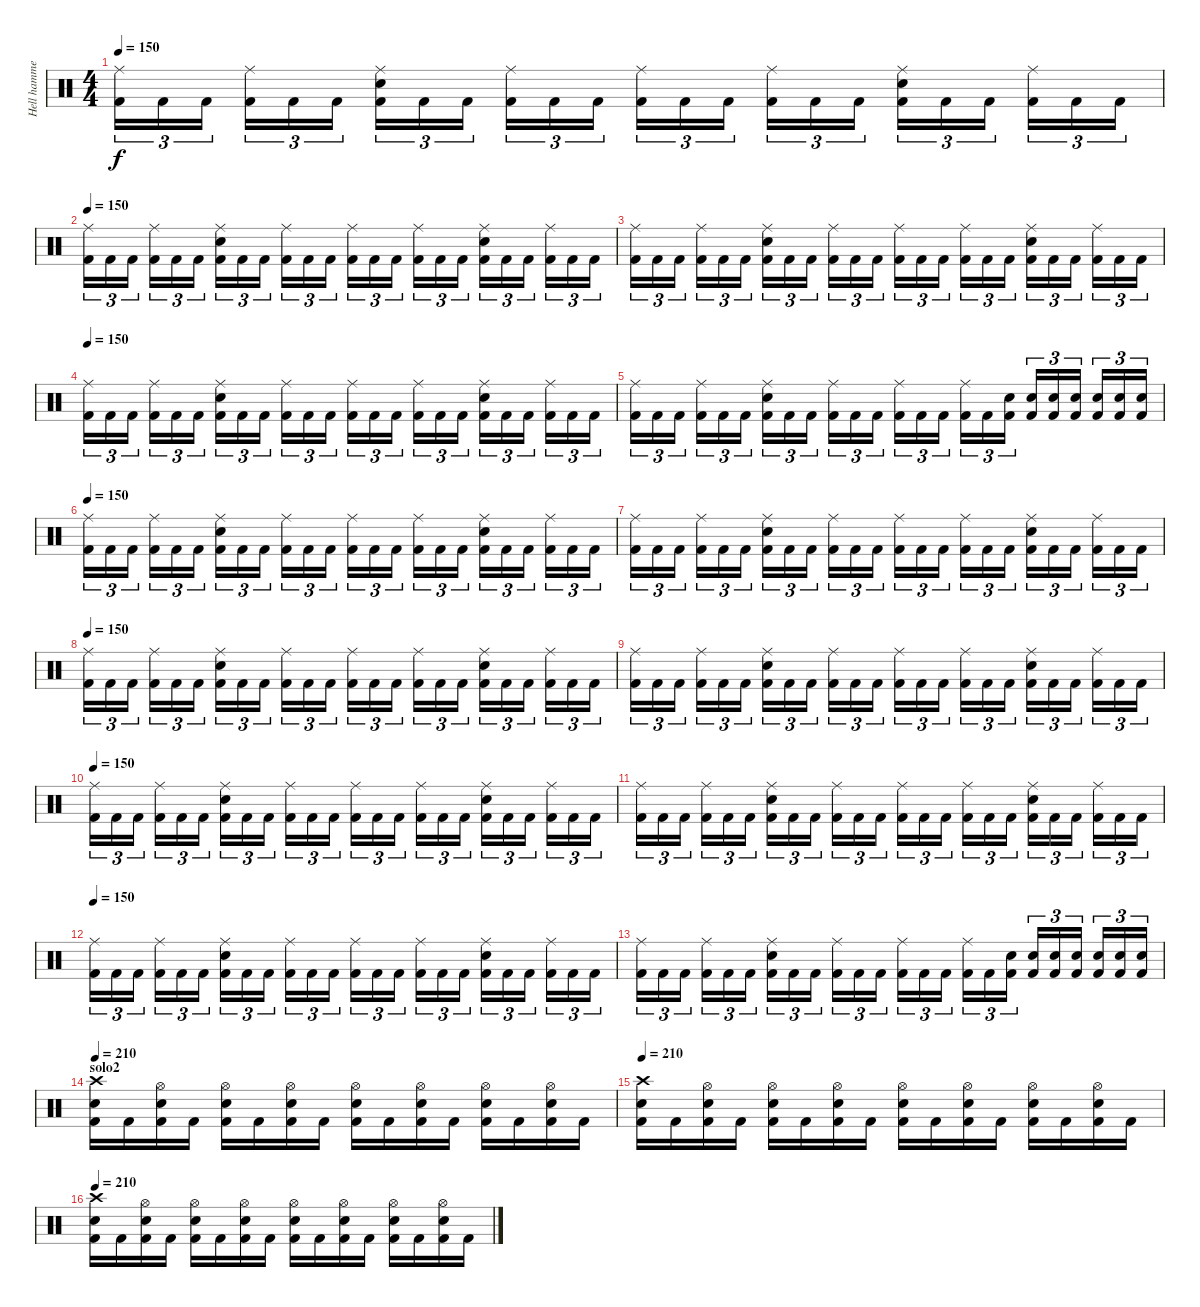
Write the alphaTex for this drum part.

\track ("Hell hammers" "Hell hamme") {instrument percussion}
\staff {score}
\articulation defaults
\ts (4 4)
\tempo 150
\clef neutral
\ks c
("Ride (middle)" "Kick (hit) 2").16{tu (3 2) dy f} "Kick (hit) 2".16{tu (3 2)} "Kick (hit) 2".16{tu (3 2)} ("Ride (middle)" "Kick (hit) 2").16{tu (3 2)} "Kick (hit) 2".16{tu (3 2)} "Kick (hit) 2".16{tu (3 2)} ("Ride (middle)" "Snare (hit) 2" "Kick (hit) 2").16{tu (3 2)} "Kick (hit) 2".16{tu (3 2)} "Kick (hit) 2".16{tu (3 2)} ("Ride (middle)" "Kick (hit) 2").16{tu (3 2)} "Kick (hit) 2".16{tu (3 2)} "Kick (hit) 2".16{tu (3 2)} ("Ride (middle)" "Kick (hit) 2").16{tu (3 2)} "Kick (hit) 2".16{tu (3 2)} "Kick (hit) 2".16{tu (3 2)} ("Ride (middle)" "Kick (hit) 2").16{tu (3 2)} "Kick (hit) 2".16{tu (3 2)} "Kick (hit) 2".16{tu (3 2)} ("Ride (middle)" "Snare (hit) 2" "Kick (hit) 2").16{tu (3 2)} "Kick (hit) 2".16{tu (3 2)} "Kick (hit) 2".16{tu (3 2)} ("Ride (middle)" "Kick (hit) 2").16{tu (3 2)} "Kick (hit) 2".16{tu (3 2)} "Kick (hit) 2".16{tu (3 2)} |
\tempo 150
("Ride (middle)" "Kick (hit) 2").16{tu (3 2)} "Kick (hit) 2".16{tu (3 2)} "Kick (hit) 2".16{tu (3 2)} ("Ride (middle)" "Kick (hit) 2").16{tu (3 2)} "Kick (hit) 2".16{tu (3 2)} "Kick (hit) 2".16{tu (3 2)} ("Ride (middle)" "Snare (hit) 2" "Kick (hit) 2").16{tu (3 2)} "Kick (hit) 2".16{tu (3 2)} "Kick (hit) 2".16{tu (3 2)} ("Ride (middle)" "Kick (hit) 2").16{tu (3 2)} "Kick (hit) 2".16{tu (3 2)} "Kick (hit) 2".16{tu (3 2)} ("Ride (middle)" "Kick (hit) 2").16{tu (3 2)} "Kick (hit) 2".16{tu (3 2)} "Kick (hit) 2".16{tu (3 2)} ("Ride (middle)" "Kick (hit) 2").16{tu (3 2)} "Kick (hit) 2".16{tu (3 2)} "Kick (hit) 2".16{tu (3 2)} ("Ride (middle)" "Snare (hit) 2" "Kick (hit) 2").16{tu (3 2)} "Kick (hit) 2".16{tu (3 2)} "Kick (hit) 2".16{tu (3 2)} ("Ride (middle)" "Kick (hit) 2").16{tu (3 2)} "Kick (hit) 2".16{tu (3 2)} "Kick (hit) 2".16{tu (3 2)} |
("Ride (middle)" "Kick (hit) 2").16{tu (3 2)} "Kick (hit) 2".16{tu (3 2)} "Kick (hit) 2".16{tu (3 2)} ("Ride (middle)" "Kick (hit) 2").16{tu (3 2)} "Kick (hit) 2".16{tu (3 2)} "Kick (hit) 2".16{tu (3 2)} ("Ride (middle)" "Snare (hit) 2" "Kick (hit) 2").16{tu (3 2)} "Kick (hit) 2".16{tu (3 2)} "Kick (hit) 2".16{tu (3 2)} ("Ride (middle)" "Kick (hit) 2").16{tu (3 2)} "Kick (hit) 2".16{tu (3 2)} "Kick (hit) 2".16{tu (3 2)} ("Ride (middle)" "Kick (hit) 2").16{tu (3 2)} "Kick (hit) 2".16{tu (3 2)} "Kick (hit) 2".16{tu (3 2)} ("Ride (middle)" "Kick (hit) 2").16{tu (3 2)} "Kick (hit) 2".16{tu (3 2)} "Kick (hit) 2".16{tu (3 2)} ("Ride (middle)" "Snare (hit) 2" "Kick (hit) 2").16{tu (3 2)} "Kick (hit) 2".16{tu (3 2)} "Kick (hit) 2".16{tu (3 2)} ("Ride (middle)" "Kick (hit) 2").16{tu (3 2)} "Kick (hit) 2".16{tu (3 2)} "Kick (hit) 2".16{tu (3 2)} |
\tempo 150
("Ride (middle)" "Kick (hit) 2").16{tu (3 2)} "Kick (hit) 2".16{tu (3 2)} "Kick (hit) 2".16{tu (3 2)} ("Ride (middle)" "Kick (hit) 2").16{tu (3 2)} "Kick (hit) 2".16{tu (3 2)} "Kick (hit) 2".16{tu (3 2)} ("Ride (middle)" "Snare (hit) 2" "Kick (hit) 2").16{tu (3 2)} "Kick (hit) 2".16{tu (3 2)} "Kick (hit) 2".16{tu (3 2)} ("Ride (middle)" "Kick (hit) 2").16{tu (3 2)} "Kick (hit) 2".16{tu (3 2)} "Kick (hit) 2".16{tu (3 2)} ("Ride (middle)" "Kick (hit) 2").16{tu (3 2)} "Kick (hit) 2".16{tu (3 2)} "Kick (hit) 2".16{tu (3 2)} ("Ride (middle)" "Kick (hit) 2").16{tu (3 2)} "Kick (hit) 2".16{tu (3 2)} "Kick (hit) 2".16{tu (3 2)} ("Ride (middle)" "Snare (hit) 2" "Kick (hit) 2").16{tu (3 2)} "Kick (hit) 2".16{tu (3 2)} "Kick (hit) 2".16{tu (3 2)} ("Ride (middle)" "Kick (hit) 2").16{tu (3 2)} "Kick (hit) 2".16{tu (3 2)} "Kick (hit) 2".16{tu (3 2)} |
("Ride (middle)" "Kick (hit) 2").16{tu (3 2)} "Kick (hit) 2".16{tu (3 2)} "Kick (hit) 2".16{tu (3 2)} ("Ride (middle)" "Kick (hit) 2").16{tu (3 2)} "Kick (hit) 2".16{tu (3 2)} "Kick (hit) 2".16{tu (3 2)} ("Ride (middle)" "Snare (hit) 2" "Kick (hit) 2").16{tu (3 2)} "Kick (hit) 2".16{tu (3 2)} "Kick (hit) 2".16{tu (3 2)} ("Ride (middle)" "Kick (hit) 2").16{tu (3 2)} "Kick (hit) 2".16{tu (3 2)} "Kick (hit) 2".16{tu (3 2)} ("Ride (middle)" "Kick (hit) 2").16{tu (3 2)} "Kick (hit) 2".16{tu (3 2)} "Kick (hit) 2".16{tu (3 2)} ("Ride (middle)" "Kick (hit) 2").16{tu (3 2)} "Kick (hit) 2".16{tu (3 2)} ("Snare (hit) 2" "Kick (hit) 2").16{tu (3 2)} ("Snare (hit) 2" "Kick (hit) 2").16{tu (3 2)} ("Snare (hit) 2" "Kick (hit) 2").16{tu (3 2)} ("Snare (hit) 2" "Kick (hit) 2").16{tu (3 2)} ("Snare (hit) 2" "Kick (hit) 2").16{tu (3 2)} ("Snare (hit) 2" "Kick (hit) 2").16{tu (3 2)} ("Snare (hit) 2" "Kick (hit) 2").16{tu (3 2)} |
\tempo 150
("Ride (middle)" "Kick (hit) 2").16{tu (3 2)} "Kick (hit) 2".16{tu (3 2)} "Kick (hit) 2".16{tu (3 2)} ("Ride (middle)" "Kick (hit) 2").16{tu (3 2)} "Kick (hit) 2".16{tu (3 2)} "Kick (hit) 2".16{tu (3 2)} ("Ride (middle)" "Snare (hit) 2" "Kick (hit) 2").16{tu (3 2)} "Kick (hit) 2".16{tu (3 2)} "Kick (hit) 2".16{tu (3 2)} ("Ride (middle)" "Kick (hit) 2").16{tu (3 2)} "Kick (hit) 2".16{tu (3 2)} "Kick (hit) 2".16{tu (3 2)} ("Ride (middle)" "Kick (hit) 2").16{tu (3 2)} "Kick (hit) 2".16{tu (3 2)} "Kick (hit) 2".16{tu (3 2)} ("Ride (middle)" "Kick (hit) 2").16{tu (3 2)} "Kick (hit) 2".16{tu (3 2)} "Kick (hit) 2".16{tu (3 2)} ("Ride (middle)" "Snare (hit) 2" "Kick (hit) 2").16{tu (3 2)} "Kick (hit) 2".16{tu (3 2)} "Kick (hit) 2".16{tu (3 2)} ("Ride (middle)" "Kick (hit) 2").16{tu (3 2)} "Kick (hit) 2".16{tu (3 2)} "Kick (hit) 2".16{tu (3 2)} |
("Ride (middle)" "Kick (hit) 2").16{tu (3 2)} "Kick (hit) 2".16{tu (3 2)} "Kick (hit) 2".16{tu (3 2)} ("Ride (middle)" "Kick (hit) 2").16{tu (3 2)} "Kick (hit) 2".16{tu (3 2)} "Kick (hit) 2".16{tu (3 2)} ("Ride (middle)" "Snare (hit) 2" "Kick (hit) 2").16{tu (3 2)} "Kick (hit) 2".16{tu (3 2)} "Kick (hit) 2".16{tu (3 2)} ("Ride (middle)" "Kick (hit) 2").16{tu (3 2)} "Kick (hit) 2".16{tu (3 2)} "Kick (hit) 2".16{tu (3 2)} ("Ride (middle)" "Kick (hit) 2").16{tu (3 2)} "Kick (hit) 2".16{tu (3 2)} "Kick (hit) 2".16{tu (3 2)} ("Ride (middle)" "Kick (hit) 2").16{tu (3 2)} "Kick (hit) 2".16{tu (3 2)} "Kick (hit) 2".16{tu (3 2)} ("Ride (middle)" "Snare (hit) 2" "Kick (hit) 2").16{tu (3 2)} "Kick (hit) 2".16{tu (3 2)} "Kick (hit) 2".16{tu (3 2)} ("Ride (middle)" "Kick (hit) 2").16{tu (3 2)} "Kick (hit) 2".16{tu (3 2)} "Kick (hit) 2".16{tu (3 2)} |
\tempo 150
("Ride (middle)" "Kick (hit) 2").16{tu (3 2)} "Kick (hit) 2".16{tu (3 2)} "Kick (hit) 2".16{tu (3 2)} ("Ride (middle)" "Kick (hit) 2").16{tu (3 2)} "Kick (hit) 2".16{tu (3 2)} "Kick (hit) 2".16{tu (3 2)} ("Ride (middle)" "Snare (hit) 2" "Kick (hit) 2").16{tu (3 2)} "Kick (hit) 2".16{tu (3 2)} "Kick (hit) 2".16{tu (3 2)} ("Ride (middle)" "Kick (hit) 2").16{tu (3 2)} "Kick (hit) 2".16{tu (3 2)} "Kick (hit) 2".16{tu (3 2)} ("Ride (middle)" "Kick (hit) 2").16{tu (3 2)} "Kick (hit) 2".16{tu (3 2)} "Kick (hit) 2".16{tu (3 2)} ("Ride (middle)" "Kick (hit) 2").16{tu (3 2)} "Kick (hit) 2".16{tu (3 2)} "Kick (hit) 2".16{tu (3 2)} ("Ride (middle)" "Snare (hit) 2" "Kick (hit) 2").16{tu (3 2)} "Kick (hit) 2".16{tu (3 2)} "Kick (hit) 2".16{tu (3 2)} ("Ride (middle)" "Kick (hit) 2").16{tu (3 2)} "Kick (hit) 2".16{tu (3 2)} "Kick (hit) 2".16{tu (3 2)} |
("Ride (middle)" "Kick (hit) 2").16{tu (3 2)} "Kick (hit) 2".16{tu (3 2)} "Kick (hit) 2".16{tu (3 2)} ("Ride (middle)" "Kick (hit) 2").16{tu (3 2)} "Kick (hit) 2".16{tu (3 2)} "Kick (hit) 2".16{tu (3 2)} ("Ride (middle)" "Snare (hit) 2" "Kick (hit) 2").16{tu (3 2)} "Kick (hit) 2".16{tu (3 2)} "Kick (hit) 2".16{tu (3 2)} ("Ride (middle)" "Kick (hit) 2").16{tu (3 2)} "Kick (hit) 2".16{tu (3 2)} "Kick (hit) 2".16{tu (3 2)} ("Ride (middle)" "Kick (hit) 2").16{tu (3 2)} "Kick (hit) 2".16{tu (3 2)} "Kick (hit) 2".16{tu (3 2)} ("Ride (middle)" "Kick (hit) 2").16{tu (3 2)} "Kick (hit) 2".16{tu (3 2)} "Kick (hit) 2".16{tu (3 2)} ("Ride (middle)" "Snare (hit) 2" "Kick (hit) 2").16{tu (3 2)} "Kick (hit) 2".16{tu (3 2)} "Kick (hit) 2".16{tu (3 2)} ("Ride (middle)" "Kick (hit) 2").16{tu (3 2)} "Kick (hit) 2".16{tu (3 2)} "Kick (hit) 2".16{tu (3 2)} |
\tempo 150
("Ride (middle)" "Kick (hit) 2").16{tu (3 2)} "Kick (hit) 2".16{tu (3 2)} "Kick (hit) 2".16{tu (3 2)} ("Ride (middle)" "Kick (hit) 2").16{tu (3 2)} "Kick (hit) 2".16{tu (3 2)} "Kick (hit) 2".16{tu (3 2)} ("Ride (middle)" "Snare (hit) 2" "Kick (hit) 2").16{tu (3 2)} "Kick (hit) 2".16{tu (3 2)} "Kick (hit) 2".16{tu (3 2)} ("Ride (middle)" "Kick (hit) 2").16{tu (3 2)} "Kick (hit) 2".16{tu (3 2)} "Kick (hit) 2".16{tu (3 2)} ("Ride (middle)" "Kick (hit) 2").16{tu (3 2)} "Kick (hit) 2".16{tu (3 2)} "Kick (hit) 2".16{tu (3 2)} ("Ride (middle)" "Kick (hit) 2").16{tu (3 2)} "Kick (hit) 2".16{tu (3 2)} "Kick (hit) 2".16{tu (3 2)} ("Ride (middle)" "Snare (hit) 2" "Kick (hit) 2").16{tu (3 2)} "Kick (hit) 2".16{tu (3 2)} "Kick (hit) 2".16{tu (3 2)} ("Ride (middle)" "Kick (hit) 2").16{tu (3 2)} "Kick (hit) 2".16{tu (3 2)} "Kick (hit) 2".16{tu (3 2)} |
("Ride (middle)" "Kick (hit) 2").16{tu (3 2)} "Kick (hit) 2".16{tu (3 2)} "Kick (hit) 2".16{tu (3 2)} ("Ride (middle)" "Kick (hit) 2").16{tu (3 2)} "Kick (hit) 2".16{tu (3 2)} "Kick (hit) 2".16{tu (3 2)} ("Ride (middle)" "Snare (hit) 2" "Kick (hit) 2").16{tu (3 2)} "Kick (hit) 2".16{tu (3 2)} "Kick (hit) 2".16{tu (3 2)} ("Ride (middle)" "Kick (hit) 2").16{tu (3 2)} "Kick (hit) 2".16{tu (3 2)} "Kick (hit) 2".16{tu (3 2)} ("Ride (middle)" "Kick (hit) 2").16{tu (3 2)} "Kick (hit) 2".16{tu (3 2)} "Kick (hit) 2".16{tu (3 2)} ("Ride (middle)" "Kick (hit) 2").16{tu (3 2)} "Kick (hit) 2".16{tu (3 2)} "Kick (hit) 2".16{tu (3 2)} ("Ride (middle)" "Snare (hit) 2" "Kick (hit) 2").16{tu (3 2)} "Kick (hit) 2".16{tu (3 2)} "Kick (hit) 2".16{tu (3 2)} ("Ride (middle)" "Kick (hit) 2").16{tu (3 2)} "Kick (hit) 2".16{tu (3 2)} "Kick (hit) 2".16{tu (3 2)} |
\tempo 150
("Ride (middle)" "Kick (hit) 2").16{tu (3 2)} "Kick (hit) 2".16{tu (3 2)} "Kick (hit) 2".16{tu (3 2)} ("Ride (middle)" "Kick (hit) 2").16{tu (3 2)} "Kick (hit) 2".16{tu (3 2)} "Kick (hit) 2".16{tu (3 2)} ("Ride (middle)" "Snare (hit) 2" "Kick (hit) 2").16{tu (3 2)} "Kick (hit) 2".16{tu (3 2)} "Kick (hit) 2".16{tu (3 2)} ("Ride (middle)" "Kick (hit) 2").16{tu (3 2)} "Kick (hit) 2".16{tu (3 2)} "Kick (hit) 2".16{tu (3 2)} ("Ride (middle)" "Kick (hit) 2").16{tu (3 2)} "Kick (hit) 2".16{tu (3 2)} "Kick (hit) 2".16{tu (3 2)} ("Ride (middle)" "Kick (hit) 2").16{tu (3 2)} "Kick (hit) 2".16{tu (3 2)} "Kick (hit) 2".16{tu (3 2)} ("Ride (middle)" "Snare (hit) 2" "Kick (hit) 2").16{tu (3 2)} "Kick (hit) 2".16{tu (3 2)} "Kick (hit) 2".16{tu (3 2)} ("Ride (middle)" "Kick (hit) 2").16{tu (3 2)} "Kick (hit) 2".16{tu (3 2)} "Kick (hit) 2".16{tu (3 2)} |
("Ride (middle)" "Kick (hit) 2").16{tu (3 2)} "Kick (hit) 2".16{tu (3 2)} "Kick (hit) 2".16{tu (3 2)} ("Ride (middle)" "Kick (hit) 2").16{tu (3 2)} "Kick (hit) 2".16{tu (3 2)} "Kick (hit) 2".16{tu (3 2)} ("Ride (middle)" "Snare (hit) 2" "Kick (hit) 2").16{tu (3 2)} "Kick (hit) 2".16{tu (3 2)} "Kick (hit) 2".16{tu (3 2)} ("Ride (middle)" "Kick (hit) 2").16{tu (3 2)} "Kick (hit) 2".16{tu (3 2)} "Kick (hit) 2".16{tu (3 2)} ("Ride (middle)" "Kick (hit) 2").16{tu (3 2)} "Kick (hit) 2".16{tu (3 2)} "Kick (hit) 2".16{tu (3 2)} ("Ride (middle)" "Kick (hit) 2").16{tu (3 2)} "Kick (hit) 2".16{tu (3 2)} ("Snare (hit) 2" "Kick (hit) 2").16{tu (3 2)} ("Snare (hit) 2" "Kick (hit) 2").16{tu (3 2)} ("Snare (hit) 2" "Kick (hit) 2").16{tu (3 2)} ("Snare (hit) 2" "Kick (hit) 2").16{tu (3 2)} ("Snare (hit) 2" "Kick (hit) 2").16{tu (3 2)} ("Snare (hit) 2" "Kick (hit) 2").16{tu (3 2)} ("Snare (hit) 2" "Kick (hit) 2").16{tu (3 2)} |
\section ("" "solo2")
\tempo 210
("Crash high (hit)" "Snare (hit) 2" "Kick (hit) 2").16 "Kick (hit) 2".16 ("Hi-Hat (open)" "Snare (hit) 2" "Kick (hit) 2").16 "Kick (hit) 2".16 ("Hi-Hat (open)" "Snare (hit) 2" "Kick (hit) 2").16 "Kick (hit) 2".16 ("Hi-Hat (open)" "Snare (hit) 2" "Kick (hit) 2").16 "Kick (hit) 2".16 ("Hi-Hat (open)" "Snare (hit) 2" "Kick (hit) 2").16 "Kick (hit) 2".16 ("Hi-Hat (open)" "Snare (hit) 2" "Kick (hit) 2").16 "Kick (hit) 2".16 ("Hi-Hat (open)" "Snare (hit) 2" "Kick (hit) 2").16 "Kick (hit) 2".16 ("Hi-Hat (open)" "Snare (hit) 2" "Kick (hit) 2").16 "Kick (hit) 2".16 |
\tempo 210
("Crash high (hit)" "Snare (hit) 2" "Kick (hit) 2").16 "Kick (hit) 2".16 ("Hi-Hat (open)" "Snare (hit) 2" "Kick (hit) 2").16 "Kick (hit) 2".16 ("Hi-Hat (open)" "Snare (hit) 2" "Kick (hit) 2").16 "Kick (hit) 2".16 ("Hi-Hat (open)" "Snare (hit) 2" "Kick (hit) 2").16 "Kick (hit) 2".16 ("Hi-Hat (open)" "Snare (hit) 2" "Kick (hit) 2").16 "Kick (hit) 2".16 ("Hi-Hat (open)" "Snare (hit) 2" "Kick (hit) 2").16 "Kick (hit) 2".16 ("Hi-Hat (open)" "Snare (hit) 2" "Kick (hit) 2").16 "Kick (hit) 2".16 ("Hi-Hat (open)" "Snare (hit) 2" "Kick (hit) 2").16 "Kick (hit) 2".16 |
\tempo 210
("Crash high (hit)" "Snare (hit) 2" "Kick (hit) 2").16 "Kick (hit) 2".16 ("Hi-Hat (open)" "Snare (hit) 2" "Kick (hit) 2").16 "Kick (hit) 2".16 ("Hi-Hat (open)" "Snare (hit) 2" "Kick (hit) 2").16 "Kick (hit) 2".16 ("Hi-Hat (open)" "Snare (hit) 2" "Kick (hit) 2").16 "Kick (hit) 2".16 ("Hi-Hat (open)" "Snare (hit) 2" "Kick (hit) 2").16 "Kick (hit) 2".16 ("Hi-Hat (open)" "Snare (hit) 2" "Kick (hit) 2").16 "Kick (hit) 2".16 ("Hi-Hat (open)" "Snare (hit) 2" "Kick (hit) 2").16 "Kick (hit) 2".16 ("Hi-Hat (open)" "Snare (hit) 2" "Kick (hit) 2").16 "Kick (hit) 2".16
